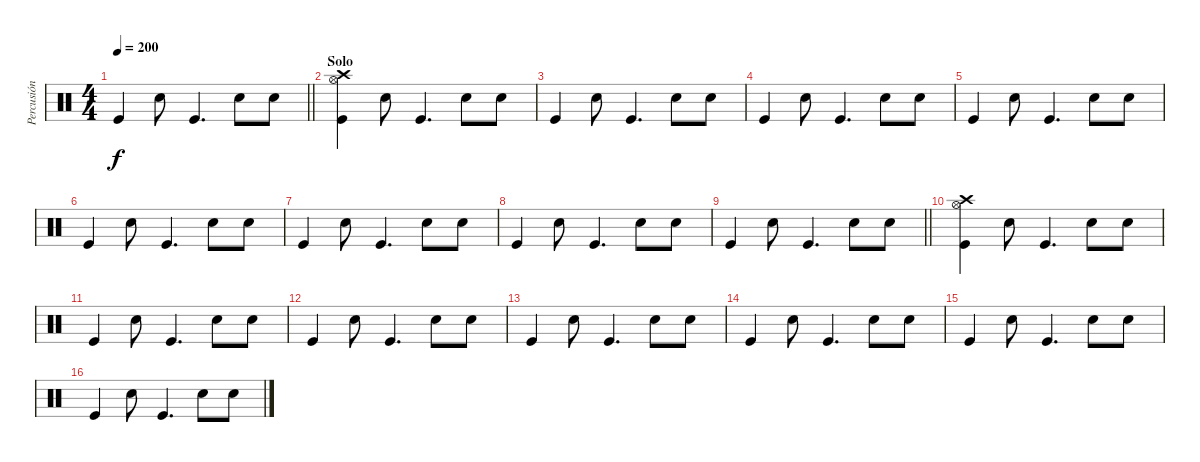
\track ("Percusión" "Percusión") {instrument percussion}
\staff {score}
\articulation defaults
\ts (4 4)
\tempo 200
\clef neutral
\barLineRight lightlight
\ks c "Kick (hit)".4{dy f} "Snare (hit) 2".8 "Kick (hit)".4{d} "Snare (hit) 2".8 "Snare (hit) 2".8
|
\section ("" "Solo")
("Hi-Hat (open)" "Crash high (hit)" "Kick (hit)").4 "Snare (hit) 2".8 "Kick (hit)".4{d} "Snare (hit) 2".8 "Snare (hit) 2".8 |
"Kick (hit)".4 "Snare (hit) 2".8 "Kick (hit)".4{d} "Snare (hit) 2".8 "Snare (hit) 2".8 |
"Kick (hit)".4 "Snare (hit) 2".8 "Kick (hit)".4{d} "Snare (hit) 2".8 "Snare (hit) 2".8 |
"Kick (hit)".4 "Snare (hit) 2".8 "Kick (hit)".4{d} "Snare (hit) 2".8 "Snare (hit) 2".8 |
"Kick (hit)".4 "Snare (hit) 2".8 "Kick (hit)".4{d} "Snare (hit) 2".8 "Snare (hit) 2".8 |
"Kick (hit)".4 "Snare (hit) 2".8 "Kick (hit)".4{d} "Snare (hit) 2".8 "Snare (hit) 2".8 |
"Kick (hit)".4 "Snare (hit) 2".8 "Kick (hit)".4{d} "Snare (hit) 2".8 "Snare (hit) 2".8 |
\barLineRight lightlight "Kick (hit)".4 "Snare (hit) 2".8 "Kick (hit)".4{d} "Snare (hit) 2".8 "Snare (hit) 2".8
|
\section ("" "")
("Hi-Hat (open)" "Crash high (hit)" "Kick (hit)").4 "Snare (hit) 2".8 "Kick (hit)".4{d} "Snare (hit) 2".8 "Snare (hit) 2".8 |
"Kick (hit)".4 "Snare (hit) 2".8 "Kick (hit)".4{d} "Snare (hit) 2".8 "Snare (hit) 2".8 |
"Kick (hit)".4 "Snare (hit) 2".8 "Kick (hit)".4{d} "Snare (hit) 2".8 "Snare (hit) 2".8 |
"Kick (hit)".4 "Snare (hit) 2".8 "Kick (hit)".4{d} "Snare (hit) 2".8 "Snare (hit) 2".8 |
"Kick (hit)".4 "Snare (hit) 2".8 "Kick (hit)".4{d} "Snare (hit) 2".8 "Snare (hit) 2".8 |
"Kick (hit)".4 "Snare (hit) 2".8 "Kick (hit)".4{d} "Snare (hit) 2".8 "Snare (hit) 2".8 |
"Kick (hit)".4 "Snare (hit) 2".8 "Kick (hit)".4{d} "Snare (hit) 2".8 "Snare (hit) 2".8
